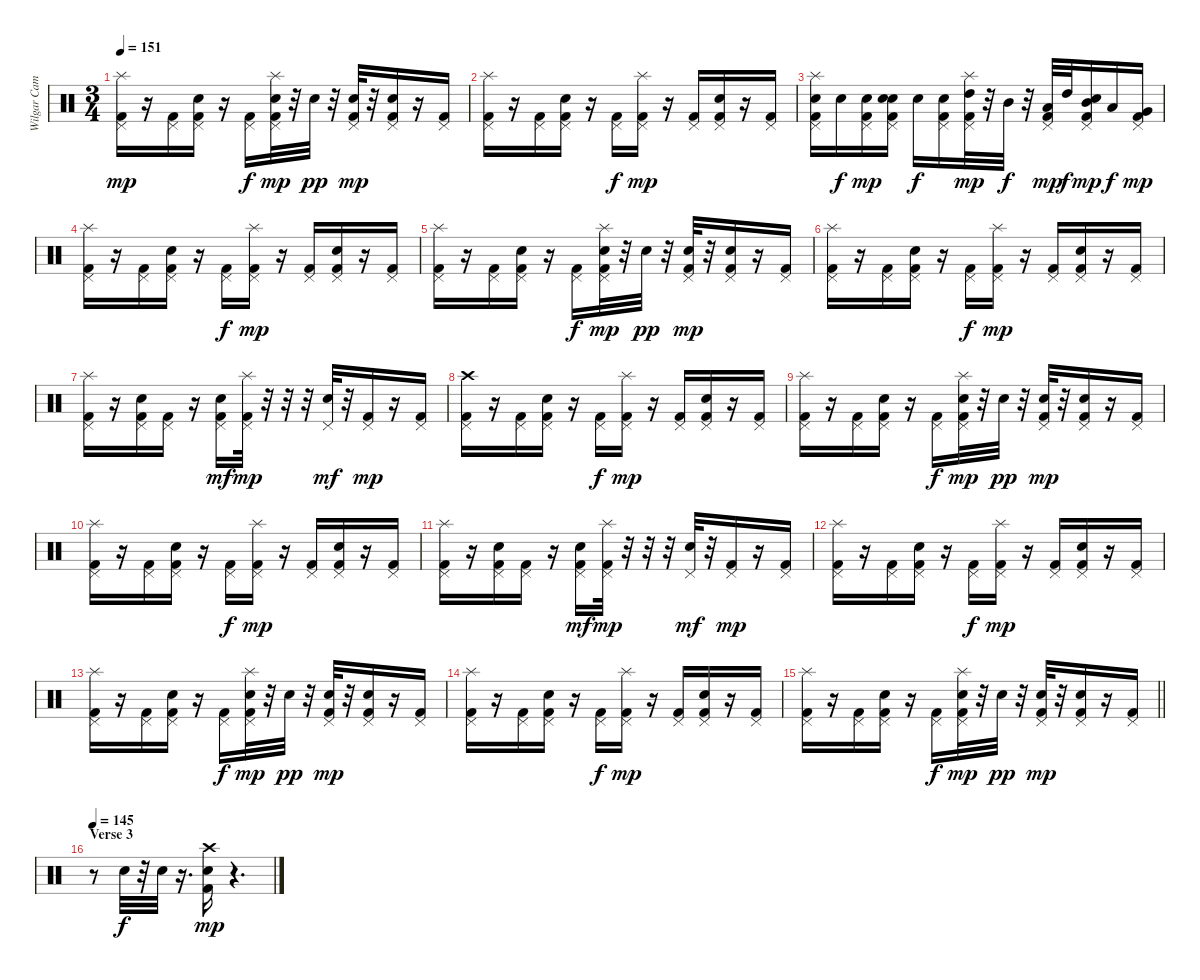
\track ("Wilgar Campbell" "Wilgar Cam") {instrument percussion}
\staff {score}
\articulation defaults
\ts (3 4)
\tempo 151
\clef neutral
\ks c
("Splash (hit)" "Pedal Hi-Hat (hit)" "Kick (hit) 2").16{dy mp} r.16 ("Pedal Hi-Hat (hit)" "Kick (hit) 2").16 ("Snare (hit) 2" "Pedal Hi-Hat (hit)" "Kick (hit) 2").16 r.16 ("Pedal Hi-Hat (hit)" "Kick (hit) 2").16{dy f} ("Splash (hit)" "Pedal Hi-Hat (hit)" "Electric Snare (hit)" "Kick (hit) 2").32{dy mp} r.32 "Electric Snare (hit)".32{dy pp} r.32 ("Pedal Hi-Hat (hit)" "Electric Snare (hit)" "Kick (hit) 2").32{dy mp} r.32 ("Snare (hit) 2" "Pedal Hi-Hat (hit)" "Kick (hit) 2").16 r.16 ("Pedal Hi-Hat (hit)" "Kick (hit) 2").16 |
("Splash (hit)" "Pedal Hi-Hat (hit)" "Kick (hit) 2").16 r.16 ("Pedal Hi-Hat (hit)" "Kick (hit) 2").16 ("Snare (hit) 2" "Pedal Hi-Hat (hit)" "Kick (hit) 2").16 r.16 ("Pedal Hi-Hat (hit)" "Kick (hit) 2").16{dy f} ("Splash (hit)" "Pedal Hi-Hat (hit)" "Kick (hit) 2").16{dy mp} r.16 ("Pedal Hi-Hat (hit)" "Kick (hit) 2").16 ("Snare (hit) 2" "Pedal Hi-Hat (hit)" "Kick (hit) 2").16 r.16 ("Pedal Hi-Hat (hit)" "Kick (hit) 2").16 |
("Splash (hit)" "Pedal Hi-Hat (hit)" "Snare (hit) 2" "Kick (hit) 2").16 "Snare (hit) 2".16{dy f} ("Pedal Hi-Hat (hit)" "Snare (hit) 2" "Kick (hit) 2").16{dy mp} ("Snare (hit) 2" "Pedal Hi-Hat (hit)" "Snare (hit) 2" "Kick (hit) 2").16 "Electric Snare (hit)".16{dy f} ("Pedal Hi-Hat (hit)" "Electric Snare (hit)" "Kick (hit) 2").16 ("Splash (hit)" "Pedal Hi-Hat (hit)" "High Tom (hit)" "Kick (hit) 2").32{dy mp} r.32 "Mid Tom (hit)".32{dy f} r.32 ("Pedal Hi-Hat (hit)" "Low Tom (hit)" "Kick (hit) 2").32{dy mp} "High Tom (hit)".32{dy f} ("Snare (hit) 2" "Pedal Hi-Hat (hit)" "Mid Tom (hit)" "Kick (hit) 2").16{dy mp} "Low Tom (hit)".16{dy f} ("Pedal Hi-Hat (hit)" "Very Low Tom (hit)" "Kick (hit) 2").16{dy mp} |
("Splash (hit)" "Pedal Hi-Hat (hit)" "Kick (hit) 2").16 r.16 ("Pedal Hi-Hat (hit)" "Kick (hit) 2").16 ("Snare (hit) 2" "Pedal Hi-Hat (hit)" "Kick (hit) 2").16 r.16 ("Pedal Hi-Hat (hit)" "Kick (hit) 2").16{dy f} ("Splash (hit)" "Pedal Hi-Hat (hit)" "Kick (hit) 2").16{dy mp} r.16 ("Pedal Hi-Hat (hit)" "Kick (hit) 2").16 ("Snare (hit) 2" "Pedal Hi-Hat (hit)" "Kick (hit) 2").16 r.16 ("Pedal Hi-Hat (hit)" "Kick (hit) 2").16 |
("Splash (hit)" "Pedal Hi-Hat (hit)" "Kick (hit) 2").16 r.16 ("Pedal Hi-Hat (hit)" "Kick (hit) 2").16 ("Snare (hit) 2" "Pedal Hi-Hat (hit)" "Kick (hit) 2").16 r.16 ("Pedal Hi-Hat (hit)" "Kick (hit) 2").16{dy f} ("Splash (hit)" "Pedal Hi-Hat (hit)" "Electric Snare (hit)" "Kick (hit) 2").32{dy mp} r.32 "Electric Snare (hit)".32{dy pp} r.32 ("Pedal Hi-Hat (hit)" "Electric Snare (hit)" "Kick (hit) 2").32{dy mp} r.32 ("Snare (hit) 2" "Pedal Hi-Hat (hit)" "Kick (hit) 2").16 r.16 ("Pedal Hi-Hat (hit)" "Kick (hit) 2").16 |
("Splash (hit)" "Pedal Hi-Hat (hit)" "Kick (hit) 2").16 r.16 ("Pedal Hi-Hat (hit)" "Kick (hit) 2").16 ("Snare (hit) 2" "Pedal Hi-Hat (hit)" "Kick (hit) 2").16 r.16 ("Pedal Hi-Hat (hit)" "Kick (hit) 2").16{dy f} ("Splash (hit)" "Pedal Hi-Hat (hit)" "Kick (hit) 2").16{dy mp} r.16 ("Pedal Hi-Hat (hit)" "Kick (hit) 2").16 ("Snare (hit) 2" "Pedal Hi-Hat (hit)" "Kick (hit) 2").16 r.16 ("Pedal Hi-Hat (hit)" "Kick (hit) 2").16 |
("Splash (hit)" "Pedal Hi-Hat (hit)" "Kick (hit) 2").16 r.16 ("Pedal Hi-Hat (hit)" "Electric Snare (hit)" "Kick (hit) 2").16 ("Pedal Hi-Hat (hit)" "Kick (hit) 2").16 r.16 ("Pedal Hi-Hat (hit)" "Electric Snare (hit)" "Kick (hit) 2").16{dy mf} ("Splash (hit)" "Pedal Hi-Hat (hit)" "Kick (hit) 2").32{dy mp} r.32 r.32 r.32 ("Pedal Hi-Hat (hit)" "Electric Snare (hit)").32{dy mf} r.32 ("Pedal Hi-Hat (hit)" "Kick (hit) 2").16{dy mp} r.16 ("Pedal Hi-Hat (hit)" "Kick (hit) 2").16 |
("Crash high (hit)" "Pedal Hi-Hat (hit)" "Kick (hit) 2").16 r.16 ("Pedal Hi-Hat (hit)" "Kick (hit) 2").16 ("Snare (hit) 2" "Pedal Hi-Hat (hit)" "Kick (hit) 2").16 r.16 ("Pedal Hi-Hat (hit)" "Kick (hit) 2").16{dy f} ("Splash (hit)" "Pedal Hi-Hat (hit)" "Kick (hit) 2").16{dy mp} r.16 ("Pedal Hi-Hat (hit)" "Kick (hit) 2").16 ("Snare (hit) 2" "Pedal Hi-Hat (hit)" "Kick (hit) 2").16 r.16 ("Pedal Hi-Hat (hit)" "Kick (hit) 2").16 |
("Splash (hit)" "Pedal Hi-Hat (hit)" "Kick (hit) 2").16 r.16 ("Pedal Hi-Hat (hit)" "Kick (hit) 2").16 ("Snare (hit) 2" "Pedal Hi-Hat (hit)" "Kick (hit) 2").16 r.16 ("Pedal Hi-Hat (hit)" "Kick (hit) 2").16{dy f} ("Splash (hit)" "Pedal Hi-Hat (hit)" "Electric Snare (hit)" "Kick (hit) 2").32{dy mp} r.32 "Electric Snare (hit)".32{dy pp} r.32 ("Pedal Hi-Hat (hit)" "Electric Snare (hit)" "Kick (hit) 2").32{dy mp} r.32 ("Snare (hit) 2" "Pedal Hi-Hat (hit)" "Kick (hit) 2").16 r.16 ("Pedal Hi-Hat (hit)" "Kick (hit) 2").16 |
("Splash (hit)" "Pedal Hi-Hat (hit)" "Kick (hit) 2").16 r.16 ("Pedal Hi-Hat (hit)" "Kick (hit) 2").16 ("Snare (hit) 2" "Pedal Hi-Hat (hit)" "Kick (hit) 2").16 r.16 ("Pedal Hi-Hat (hit)" "Kick (hit) 2").16{dy f} ("Splash (hit)" "Pedal Hi-Hat (hit)" "Kick (hit) 2").16{dy mp} r.16 ("Pedal Hi-Hat (hit)" "Kick (hit) 2").16 ("Snare (hit) 2" "Pedal Hi-Hat (hit)" "Kick (hit) 2").16 r.16 ("Pedal Hi-Hat (hit)" "Kick (hit) 2").16 |
("Splash (hit)" "Pedal Hi-Hat (hit)" "Kick (hit) 2").16 r.16 ("Pedal Hi-Hat (hit)" "Electric Snare (hit)" "Kick (hit) 2").16 ("Pedal Hi-Hat (hit)" "Kick (hit) 2").16 r.16 ("Pedal Hi-Hat (hit)" "Electric Snare (hit)" "Kick (hit) 2").16{dy mf} ("Splash (hit)" "Pedal Hi-Hat (hit)" "Kick (hit) 2").32{dy mp} r.32 r.32 r.32 ("Pedal Hi-Hat (hit)" "Electric Snare (hit)").32{dy mf} r.32 ("Pedal Hi-Hat (hit)" "Kick (hit) 2").16{dy mp} r.16 ("Pedal Hi-Hat (hit)" "Kick (hit) 2").16 |
("Splash (hit)" "Pedal Hi-Hat (hit)" "Kick (hit) 2").16 r.16 ("Pedal Hi-Hat (hit)" "Kick (hit) 2").16 ("Snare (hit) 2" "Pedal Hi-Hat (hit)" "Kick (hit) 2").16 r.16 ("Pedal Hi-Hat (hit)" "Kick (hit) 2").16{dy f} ("Splash (hit)" "Pedal Hi-Hat (hit)" "Kick (hit) 2").16{dy mp} r.16 ("Pedal Hi-Hat (hit)" "Kick (hit) 2").16 ("Snare (hit) 2" "Pedal Hi-Hat (hit)" "Kick (hit) 2").16 r.16 ("Pedal Hi-Hat (hit)" "Kick (hit) 2").16 |
("Splash (hit)" "Pedal Hi-Hat (hit)" "Kick (hit) 2").16 r.16 ("Pedal Hi-Hat (hit)" "Kick (hit) 2").16 ("Snare (hit) 2" "Pedal Hi-Hat (hit)" "Kick (hit) 2").16 r.16 ("Pedal Hi-Hat (hit)" "Kick (hit) 2").16{dy f} ("Splash (hit)" "Pedal Hi-Hat (hit)" "Electric Snare (hit)" "Kick (hit) 2").32{dy mp} r.32 "Electric Snare (hit)".32{dy pp} r.32 ("Pedal Hi-Hat (hit)" "Electric Snare (hit)" "Kick (hit) 2").32{dy mp} r.32 ("Snare (hit) 2" "Pedal Hi-Hat (hit)" "Kick (hit) 2").16 r.16 ("Pedal Hi-Hat (hit)" "Kick (hit) 2").16 |
("Splash (hit)" "Pedal Hi-Hat (hit)" "Kick (hit) 2").16 r.16 ("Pedal Hi-Hat (hit)" "Kick (hit) 2").16 ("Snare (hit) 2" "Pedal Hi-Hat (hit)" "Kick (hit) 2").16 r.16 ("Pedal Hi-Hat (hit)" "Kick (hit) 2").16{dy f} ("Splash (hit)" "Pedal Hi-Hat (hit)" "Kick (hit) 2").16{dy mp} r.16 ("Pedal Hi-Hat (hit)" "Kick (hit) 2").16 ("Snare (hit) 2" "Pedal Hi-Hat (hit)" "Kick (hit) 2").16 r.16 ("Pedal Hi-Hat (hit)" "Kick (hit) 2").16 |
\barLineRight lightlight
("Splash (hit)" "Pedal Hi-Hat (hit)" "Kick (hit) 2").16 r.16 ("Pedal Hi-Hat (hit)" "Kick (hit) 2").16 ("Snare (hit) 2" "Pedal Hi-Hat (hit)" "Kick (hit) 2").16 r.16 ("Pedal Hi-Hat (hit)" "Kick (hit) 2").16{dy f} ("Splash (hit)" "Pedal Hi-Hat (hit)" "Electric Snare (hit)" "Kick (hit) 2").32{dy mp} r.32 "Electric Snare (hit)".32{dy pp} r.32 ("Pedal Hi-Hat (hit)" "Electric Snare (hit)" "Kick (hit) 2").32{dy mp} r.32 ("Snare (hit) 2" "Pedal Hi-Hat (hit)" "Kick (hit) 2").16 r.16 ("Pedal Hi-Hat (hit)" "Kick (hit) 2").16 |
\section ("" "Verse 3")
\tempo 145
r.8 "Snare (hit) 2".32{dy f} r.32 "Snare (hit) 2".32 r.16{d} ("Crash high (hit)" "Snare (hit) 2" "Kick (hit) 2").16{dy mp} r.4{d}
